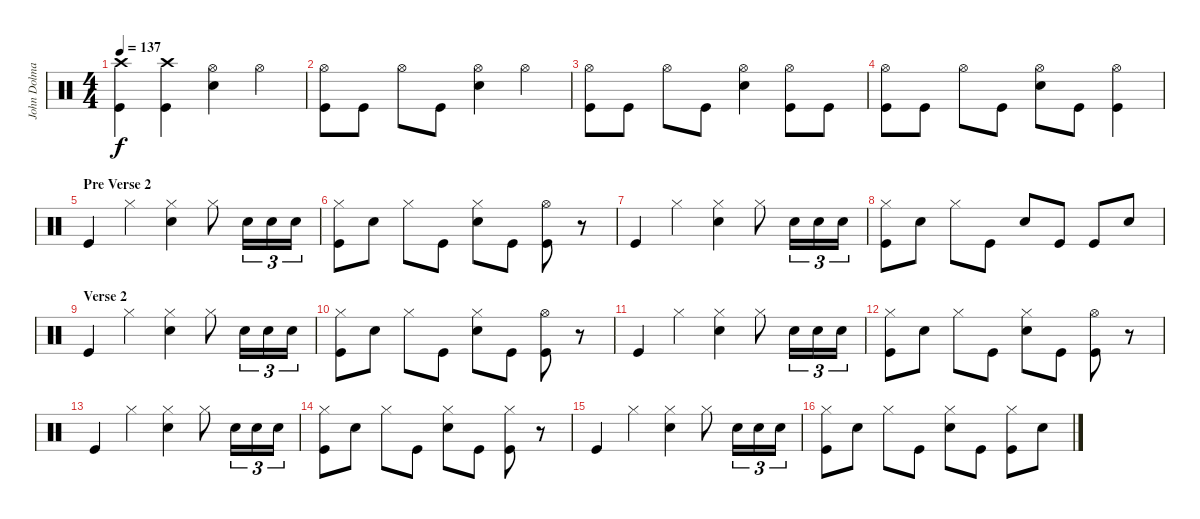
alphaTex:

\track ("John Dolmayan - Drums" "John Dolma") {instrument percussion}
\staff {score}
\articulation defaults
\ts (4 4)
\tempo 137
\clef neutral
\ks c
("Crash high (hit)" "Kick (hit)").4{dy f} ("Crash high (hit)" "Kick (hit)").4 ("Hi-Hat (open)" "Snare (hit) 2").4 "Hi-Hat (open)".4 |
("Hi-Hat (open)" "Kick (hit)").8 "Kick (hit)".8 "Hi-Hat (open)".8 "Kick (hit)".8 ("Hi-Hat (open)" "Snare (hit) 2").4 "Hi-Hat (open)".4 |
("Hi-Hat (open)" "Kick (hit)").8 "Kick (hit)".8 "Hi-Hat (open)".8 "Kick (hit)".8 ("Hi-Hat (open)" "Snare (hit) 2").4 ("Hi-Hat (open)" "Kick (hit)").8 "Kick (hit)".8 |
("Hi-Hat (open)" "Kick (hit)").8 "Kick (hit)".8 "Hi-Hat (open)".8 "Kick (hit)".8 ("Hi-Hat (open)" "Snare (hit) 2").8 "Kick (hit)".8 ("Hi-Hat (open)" "Kick (hit)").4 |
\section ("" "Pre Verse 2")
"Kick (hit)".4 "Hi-Hat (closed)".4 ("Hi-Hat (closed)" "Snare (hit) 2").4 "Hi-Hat (closed)".8 "Snare (hit) 2".16{tu (3 2)} "Snare (hit) 2".16{tu (3 2)} "Snare (hit) 2".16{tu (3 2)} |
("Hi-Hat (closed)" "Kick (hit)").8 "Snare (hit) 2".8 "Hi-Hat (closed)".8 "Kick (hit)".8 ("Hi-Hat (closed)" "Snare (hit) 2").8 "Kick (hit)".8 ("Hi-Hat (open)" "Kick (hit)").8 r.8 |
"Kick (hit)".4 "Hi-Hat (closed)".4 ("Hi-Hat (closed)" "Snare (hit) 2").4 "Hi-Hat (closed)".8 "Snare (hit) 2".16{tu (3 2)} "Snare (hit) 2".16{tu (3 2)} "Snare (hit) 2".16{tu (3 2)} |
("Hi-Hat (closed)" "Kick (hit)").8 "Snare (hit) 2".8 "Hi-Hat (closed)".8 "Kick (hit)".8 "Snare (hit) 2".8 "Kick (hit)".8 "Kick (hit)".8 "Snare (hit) 2".8 |
\section ("" "Verse 2")
"Kick (hit)".4 "Hi-Hat (closed)".4 ("Hi-Hat (closed)" "Snare (hit) 2").4 "Hi-Hat (closed)".8 "Snare (hit) 2".16{tu (3 2)} "Snare (hit) 2".16{tu (3 2)} "Snare (hit) 2".16{tu (3 2)} |
("Hi-Hat (closed)" "Kick (hit)").8 "Snare (hit) 2".8 "Hi-Hat (closed)".8 "Kick (hit)".8 ("Hi-Hat (closed)" "Snare (hit) 2").8 "Kick (hit)".8 ("Hi-Hat (open)" "Kick (hit)").8 r.8 |
"Kick (hit)".4 "Hi-Hat (closed)".4 ("Hi-Hat (closed)" "Snare (hit) 2").4 "Hi-Hat (closed)".8 "Snare (hit) 2".16{tu (3 2)} "Snare (hit) 2".16{tu (3 2)} "Snare (hit) 2".16{tu (3 2)} |
("Hi-Hat (closed)" "Kick (hit)").8 "Snare (hit) 2".8 "Hi-Hat (closed)".8 "Kick (hit)".8 ("Hi-Hat (closed)" "Snare (hit) 2").8 "Kick (hit)".8 ("Hi-Hat (open)" "Kick (hit)").8 r.8 |
"Kick (hit)".4 "Hi-Hat (closed)".4 ("Hi-Hat (closed)" "Snare (hit) 2").4 "Hi-Hat (closed)".8 "Snare (hit) 2".16{tu (3 2)} "Snare (hit) 2".16{tu (3 2)} "Snare (hit) 2".16{tu (3 2)} |
("Hi-Hat (closed)" "Kick (hit)").8 "Snare (hit) 2".8 "Hi-Hat (closed)".8 "Kick (hit)".8 ("Hi-Hat (closed)" "Snare (hit) 2").8 "Kick (hit)".8 ("Hi-Hat (closed)" "Kick (hit)").8 r.8 |
"Kick (hit)".4 "Hi-Hat (closed)".4 ("Hi-Hat (closed)" "Snare (hit) 2").4 "Hi-Hat (closed)".8 "Snare (hit) 2".16{tu (3 2)} "Snare (hit) 2".16{tu (3 2)} "Snare (hit) 2".16{tu (3 2)} |
("Hi-Hat (closed)" "Kick (hit)").8 "Snare (hit) 2".8 "Hi-Hat (closed)".8 "Kick (hit)".8 ("Hi-Hat (closed)" "Snare (hit) 2").8 "Kick (hit)".8 ("Hi-Hat (closed)" "Kick (hit)").8 "Snare (hit) 2".8
